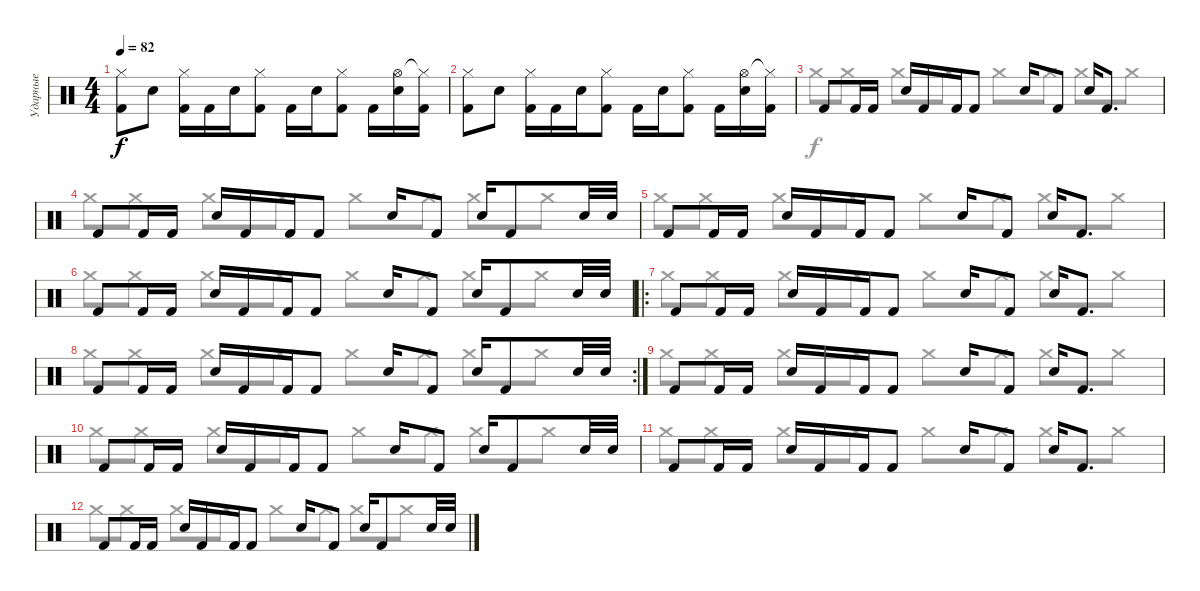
\track ("Ударные" "Ударные") {instrument percussion}
\staff {score}
\articulation defaults
\voice
\ts (4 4)
\tempo 82
\clef neutral
\ks c
("Hi-Hat (closed)" "Kick (hit) 2").8{dy f} "Snare (hit) 2".8 ("Hi-Hat (closed)" "Kick (hit) 2").16 "Kick (hit) 2".16 "Snare (hit) 2".16 ("Hi-Hat (closed)" "Kick (hit) 2").8 "Kick (hit) 2".16 "Snare (hit) 2".16 ("Hi-Hat (closed)" "Kick (hit) 2").8 "Kick (hit) 2".16 ("Hi-Hat (open)" "Snare (hit) 2").16 ("Hi-Hat (closed)"{t} "Kick (hit) 2").16 |
("Hi-Hat (closed)" "Kick (hit) 2").8 "Snare (hit) 2".8 ("Hi-Hat (closed)" "Kick (hit) 2").16 "Kick (hit) 2".16 "Snare (hit) 2".16 ("Hi-Hat (closed)" "Kick (hit) 2").8 "Kick (hit) 2".16 "Snare (hit) 2".16 ("Hi-Hat (closed)" "Kick (hit) 2").8 "Kick (hit) 2".16 ("Hi-Hat (open)" "Snare (hit) 2").16 ("Hi-Hat (closed)"{t} "Kick (hit) 2").16 |
"Kick (hit) 2".8 "Kick (hit) 2".16 "Kick (hit) 2".16 "Snare (hit) 2".16 "Kick (hit) 2".16 "Kick (hit) 2".16 "Kick (hit) 2".8 "Snare (hit) 2".16 "Kick (hit) 2".8 "Snare (hit) 2".16 "Kick (hit) 2".8{d} |
"Kick (hit) 2".8 "Kick (hit) 2".16 "Kick (hit) 2".16 "Snare (hit) 2".16 "Kick (hit) 2".16 "Kick (hit) 2".16 "Kick (hit) 2".8 "Snare (hit) 2".16 "Kick (hit) 2".8 "Snare (hit) 2".16 "Kick (hit) 2".8 "Snare (hit) 2".32 "Snare (hit) 2".32 |
"Kick (hit) 2".8 "Kick (hit) 2".16 "Kick (hit) 2".16 "Snare (hit) 2".16 "Kick (hit) 2".16 "Kick (hit) 2".16 "Kick (hit) 2".8 "Snare (hit) 2".16 "Kick (hit) 2".8 "Snare (hit) 2".16 "Kick (hit) 2".8{d} |
"Kick (hit) 2".8 "Kick (hit) 2".16 "Kick (hit) 2".16 "Snare (hit) 2".16 "Kick (hit) 2".16 "Kick (hit) 2".16 "Kick (hit) 2".8 "Snare (hit) 2".16 "Kick (hit) 2".8 "Snare (hit) 2".16 "Kick (hit) 2".8 "Snare (hit) 2".32 "Snare (hit) 2".32 |
\ro "Kick (hit) 2".8 "Kick (hit) 2".16 "Kick (hit) 2".16 "Snare (hit) 2".16 "Kick (hit) 2".16 "Kick (hit) 2".16 "Kick (hit) 2".8 "Snare (hit) 2".16 "Kick (hit) 2".8 "Snare (hit) 2".16 "Kick (hit) 2".8{d}
|
\rc 2 "Kick (hit) 2".8 "Kick (hit) 2".16 "Kick (hit) 2".16 "Snare (hit) 2".16 "Kick (hit) 2".16 "Kick (hit) 2".16 "Kick (hit) 2".8 "Snare (hit) 2".16 "Kick (hit) 2".8 "Snare (hit) 2".16 "Kick (hit) 2".8 "Snare (hit) 2".32 "Snare (hit) 2".32
|
"Kick (hit) 2".8 "Kick (hit) 2".16 "Kick (hit) 2".16 "Snare (hit) 2".16 "Kick (hit) 2".16 "Kick (hit) 2".16 "Kick (hit) 2".8 "Snare (hit) 2".16 "Kick (hit) 2".8 "Snare (hit) 2".16 "Kick (hit) 2".8{d} |
"Kick (hit) 2".8 "Kick (hit) 2".16 "Kick (hit) 2".16 "Snare (hit) 2".16 "Kick (hit) 2".16 "Kick (hit) 2".16 "Kick (hit) 2".8 "Snare (hit) 2".16 "Kick (hit) 2".8 "Snare (hit) 2".16 "Kick (hit) 2".8 "Snare (hit) 2".32 "Snare (hit) 2".32 |
"Kick (hit) 2".8 "Kick (hit) 2".16 "Kick (hit) 2".16 "Snare (hit) 2".16 "Kick (hit) 2".16 "Kick (hit) 2".16 "Kick (hit) 2".8 "Snare (hit) 2".16 "Kick (hit) 2".8 "Snare (hit) 2".16 "Kick (hit) 2".8{d} |
"Kick (hit) 2".8 "Kick (hit) 2".16 "Kick (hit) 2".16 "Snare (hit) 2".16 "Kick (hit) 2".16 "Kick (hit) 2".16 "Kick (hit) 2".8 "Snare (hit) 2".16 "Kick (hit) 2".8 "Snare (hit) 2".16 "Kick (hit) 2".8 "Snare (hit) 2".32 "Snare (hit) 2".32 |
|
|
|
\voice
\clef neutral
\ottava regular
\simile none
\ks c
|
|
"Crash medium (hit)".8 "Crash medium (hit)".8 "Crash medium (hit)".8 "Crash medium (hit)".8 "Crash medium (hit)".8 "Crash medium (hit)".8 "Crash medium (hit)".8 "Crash medium (hit)".8 |
"Crash medium (hit)".8 "Crash medium (hit)".8 "Crash medium (hit)".8 "Crash medium (hit)".8 "Crash medium (hit)".8 "Crash medium (hit)".8 "Crash medium (hit)".8 "Crash medium (hit)".8 |
"Crash medium (hit)".8 "Crash medium (hit)".8 "Crash medium (hit)".8 "Crash medium (hit)".8 "Crash medium (hit)".8 "Crash medium (hit)".8 "Crash medium (hit)".8 "Crash medium (hit)".8 |
"Crash medium (hit)".8 "Crash medium (hit)".8 "Crash medium (hit)".8 "Crash medium (hit)".8 "Crash medium (hit)".8 "Crash medium (hit)".8 "Crash medium (hit)".8 "Crash medium (hit)".8 |
"Crash medium (hit)".8 "Crash medium (hit)".8 "Crash medium (hit)".8 "Crash medium (hit)".8 "Crash medium (hit)".8 "Crash medium (hit)".8 "Crash medium (hit)".8 "Crash medium (hit)".8 |
"Crash medium (hit)".8 "Crash medium (hit)".8 "Crash medium (hit)".8 "Crash medium (hit)".8 "Crash medium (hit)".8 "Crash medium (hit)".8 "Crash medium (hit)".8 "Crash medium (hit)".8 |
"Crash medium (hit)".8 "Crash medium (hit)".8 "Crash medium (hit)".8 "Crash medium (hit)".8 "Crash medium (hit)".8 "Crash medium (hit)".8 "Crash medium (hit)".8 "Crash medium (hit)".8 |
"Crash medium (hit)".8 "Crash medium (hit)".8 "Crash medium (hit)".8 "Crash medium (hit)".8 "Crash medium (hit)".8 "Crash medium (hit)".8 "Crash medium (hit)".8 "Crash medium (hit)".8 |
"Crash medium (hit)".8 "Crash medium (hit)".8 "Crash medium (hit)".8 "Crash medium (hit)".8 "Crash medium (hit)".8 "Crash medium (hit)".8 "Crash medium (hit)".8 "Crash medium (hit)".8 |
"Crash medium (hit)".8 "Crash medium (hit)".8 "Crash medium (hit)".8 "Crash medium (hit)".8 "Crash medium (hit)".8 "Crash medium (hit)".8 "Crash medium (hit)".8 "Crash medium (hit)".8 |
|
|
|
